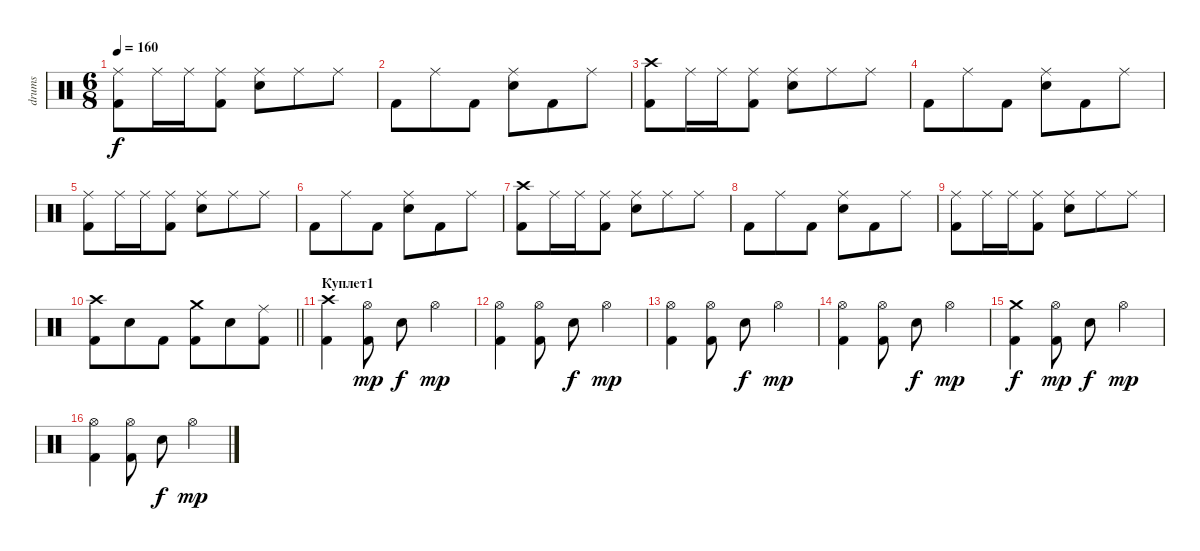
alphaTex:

\track ("drums" "drums") {instrument percussion}
\staff {score}
\articulation defaults
\ts (6 8)
\tempo 160
\clef neutral
\ks c
("Ride (middle)" "Kick (hit) 2").8{dy f} "Ride (middle)".16 "Ride (middle)".16 ("Kick (hit) 2" "Ride (middle)").8 ("Electric Snare (hit)" "Ride (middle)").8 "Ride (middle)".8 "Ride (middle)".8 |
"Kick (hit) 2".8 "Ride (middle)".8 "Kick (hit) 2".8 ("Electric Snare (hit)" "Ride (middle)").8 "Kick (hit) 2".8 "Ride (middle)".8 |
("Kick (hit) 2" "Crash high (hit)").8 "Ride (middle)".16 "Ride (middle)".16 ("Kick (hit) 2" "Ride (middle)").8 ("Electric Snare (hit)" "Ride (middle)").8 "Ride (middle)".8 "Ride (middle)".8 |
"Kick (hit) 2".8 "Ride (middle)".8 "Kick (hit) 2".8 ("Electric Snare (hit)" "Ride (middle)").8 "Kick (hit) 2".8 "Ride (middle)".8 |
("Ride (middle)" "Kick (hit) 2").8 "Ride (middle)".16 "Ride (middle)".16 ("Kick (hit) 2" "Ride (middle)").8 ("Electric Snare (hit)" "Ride (middle)").8 "Ride (middle)".8 "Ride (middle)".8 |
"Kick (hit) 2".8 "Ride (middle)".8 "Kick (hit) 2".8 ("Electric Snare (hit)" "Ride (middle)").8 "Kick (hit) 2".8 "Ride (middle)".8 |
("Kick (hit) 2" "Crash high (hit)").8 "Ride (middle)".16 "Ride (middle)".16 ("Kick (hit) 2" "Ride (middle)").8 ("Electric Snare (hit)" "Ride (middle)").8 "Ride (middle)".8 "Ride (middle)".8 |
"Kick (hit) 2".8 "Ride (middle)".8 "Kick (hit) 2".8 ("Electric Snare (hit)" "Ride (middle)").8 "Kick (hit) 2".8 "Ride (middle)".8 |
("Ride (middle)" "Kick (hit) 2").8 "Ride (middle)".16 "Ride (middle)".16 ("Kick (hit) 2" "Ride (middle)").8 ("Electric Snare (hit)" "Ride (middle)").8 "Ride (middle)".8 "Ride (middle)".8 |
\barLineRight lightlight
("Crash high (hit)" "Kick (hit) 2").8 "Electric Snare (hit)".8 "Kick (hit) 2".8 ("Crash medium (hit)" "Kick (hit) 2").8 "Electric Snare (hit)".8 ("Kick (hit) 2" "Ride (middle)").8 |
\section ("" "Куплет1")
("Kick (hit) 2" "Crash high (hit)").4 ("Kick (hit) 2" "Hi-Hat (open)").8{dy mp} "Electric Snare (hit)".8{dy f} "Hi-Hat (open)".4{dy mp} |
("Kick (hit) 2" "Hi-Hat (open)").4 ("Kick (hit) 2" "Hi-Hat (open)").8 "Electric Snare (hit)".8{dy f} "Hi-Hat (open)".4{dy mp} |
("Hi-Hat (open)" "Kick (hit) 2").4 ("Kick (hit) 2" "Hi-Hat (open)").8 "Electric Snare (hit)".8{dy f} "Hi-Hat (open)".4{dy mp} |
("Kick (hit) 2" "Hi-Hat (open)").4 ("Kick (hit) 2" "Hi-Hat (open)").8 "Electric Snare (hit)".8{dy f} "Hi-Hat (open)".4{dy mp} |
("Kick (hit) 2" "Crash medium (hit)").4{dy f} ("Kick (hit) 2" "Hi-Hat (open)").8{dy mp} "Electric Snare (hit)".8{dy f} "Hi-Hat (open)".4{dy mp} |
("Kick (hit) 2" "Hi-Hat (open)").4 ("Kick (hit) 2" "Hi-Hat (open)").8 "Electric Snare (hit)".8{dy f} "Hi-Hat (open)".4{dy mp}
